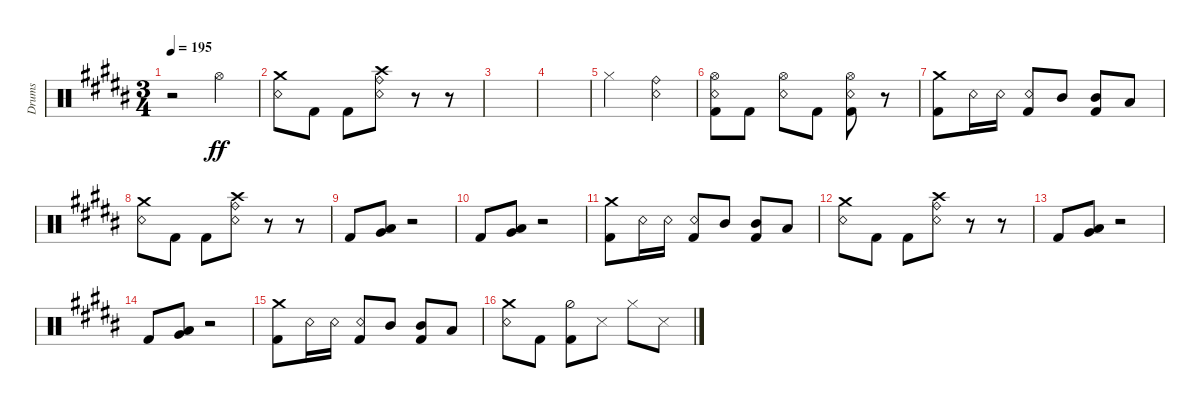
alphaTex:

\bracketExtendMode groupsimilarinstruments
\otherSystemsTrackNameOrientation horizontal
\track ("Drumkit" "Drums") {instrument percussion}
\staff {score}
\articulation defaults
\ts (3 4)
\tempo 195
\clef neutral
\ks b
r.2{dy ff beam Down} "Hi-Hat (open)"{acc bb}.4{beam Down} |
("Snare (rim shot)"{acc bb} "Crash medium (hit)"{acc bb}).8{beam Down} "Kick (hit) 2"{acc bb}.8{beam Down} "Kick (hit) 2"{acc bb}.8{beam Down} ("Snare (rim shot)"{acc bb} "Ride (bell)"{acc bb} "Crash high (hit)"{acc bb}).8{beam Down} r.8{beam Down} r.8{beam Down} |
|
|
"Hi-Hat (closed)"{acc bb}.2{beam Down} ("Snare (rim shot)"{acc bb} "Ride (bell)"{acc bb}).4{beam Down} |
("Snare (rim shot)"{acc bb} "Hi-Hat (open)"{acc bb} "Kick (hit) 2"{acc bb}).8{beam Down} "Kick (hit) 2"{acc bb}.8{beam Down} ("Snare (rim shot)"{acc bb} "Hi-Hat (open)"{acc bb}).8{beam Down} "Kick (hit) 2"{acc bb}.8{beam Down} ("Snare (rim shot)"{acc bb} "Hi-Hat (open)"{acc bb} "Kick (hit) 2"{acc bb}).8{beam Down} r.8{beam Down} |
("Kick (hit) 2"{acc bb} "Crash medium (hit)"{acc bb}).8{beam Down} "Snare (rim shot)"{acc bb}.16{beam Down} "Snare (rim shot)"{acc bb}.16{beam Down} ("Snare (rim shot)"{acc bb} "Kick (hit) 2"{acc bb}).8{beam Up} "Mid Tom (hit)"{acc bb}.8{beam Up} ("Kick (hit) 2"{acc bb} "Mid Tom (hit)"{acc bb}).8{beam Up} "Low Tom (hit)"{acc bb}.8{beam Up} |
("Snare (rim shot)"{acc bb} "Crash medium (hit)"{acc bb}).8{beam Down} "Kick (hit) 2"{acc bb}.8{beam Down} "Kick (hit) 2"{acc bb}.8{beam Down} ("Snare (rim shot)"{acc bb} "Ride (bell)"{acc bb} "Crash high (hit)"{acc bb}).8{beam Down} r.8{beam Down} r.8{beam Down} |
"Kick (hit) 2"{acc bb}.8{beam Up} ("Very Low Tom (hit)"{acc bb} "Low Tom (hit)"{acc bb}).8{beam Up} r.2{beam Up} |
"Kick (hit) 2"{acc bb}.8{beam Up} ("Very Low Tom (hit)"{acc bb} "Low Tom (hit)"{acc bb}).8{beam Up} r.2{beam Up} |
("Kick (hit) 2"{acc bb} "Crash medium (hit)"{acc bb}).8{beam Down} "Snare (rim shot)"{acc bb}.16{beam Down} "Snare (rim shot)"{acc bb}.16{beam Down} ("Snare (rim shot)"{acc bb} "Kick (hit) 2"{acc bb}).8{beam Up} "Mid Tom (hit)"{acc bb}.8{beam Up} ("Kick (hit) 2"{acc bb} "Mid Tom (hit)"{acc bb}).8{beam Up} "Low Tom (hit)"{acc bb}.8{beam Up} |
("Snare (rim shot)"{acc bb} "Crash medium (hit)"{acc bb}).8{beam Down} "Kick (hit) 2"{acc bb}.8{beam Down} "Kick (hit) 2"{acc bb}.8{beam Down} ("Snare (rim shot)"{acc bb} "Ride (bell)"{acc bb} "Crash high (hit)"{acc bb}).8{beam Down} r.8{beam Down} r.8{beam Down} |
"Kick (hit) 2"{acc bb}.8{beam Up} ("Very Low Tom (hit)"{acc bb} "Low Tom (hit)"{acc bb}).8{beam Up} r.2{beam Up} |
"Kick (hit) 2"{acc bb}.8{beam Up} ("Very Low Tom (hit)"{acc bb} "Low Tom (hit)"{acc bb}).8{beam Up} r.2{beam Up} |
("Kick (hit) 2"{acc bb} "Crash medium (hit)"{acc bb}).8{beam Down} "Snare (rim shot)"{acc bb}.16{beam Down} "Snare (rim shot)"{acc bb}.16{beam Down} ("Snare (rim shot)"{acc bb} "Kick (hit) 2"{acc bb}).8{beam Up} "Mid Tom (hit)"{acc bb}.8{beam Up} ("Kick (hit) 2"{acc bb} "Mid Tom (hit)"{acc bb}).8{beam Up} "Low Tom (hit)"{acc bb}.8{beam Up} |
("Snare (rim shot)"{acc bb} "Crash medium (hit)"{acc bb}).8{beam Down} "Kick (hit) 2"{acc bb}.8{beam Down} ("Kick (hit) 2"{acc bb} "Hi-Hat (half)"{acc bb}).8{beam Down} "Snare (side stick) 3"{acc bb}.8{beam Down} "Hi-Hat (closed)"{acc bb}.8{beam Down} "Snare (side stick) 3"{acc bb}.8{beam Down}
